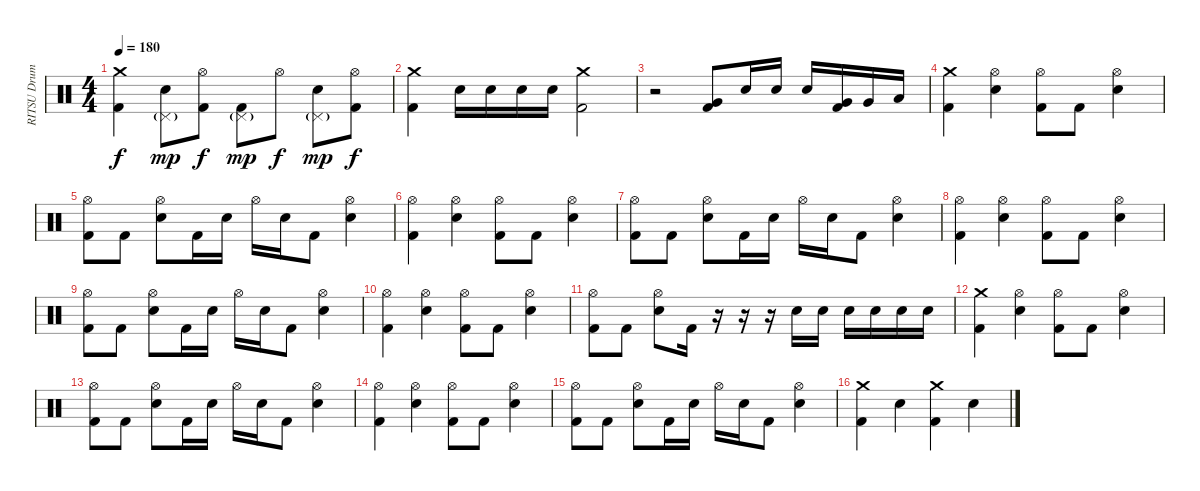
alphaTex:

\track ("RITSU Drums" "RITSU Drum") {instrument percussion}
\staff {score}
\articulation defaults
\ts (4 4)
\tempo 180
\clef neutral
\ks c
("Crash medium (hit)" "Kick (hit) 2").4{dy f} ("Pedal Hi-Hat (hit)"{g} "Electric Snare (hit)").8{dy mp} ("Hi-Hat (open)" "Kick (hit) 2").8{dy f} ("Pedal Hi-Hat (hit)"{g} "Kick (hit) 2").8{dy mp} "Hi-Hat (open)".8{dy f} ("Pedal Hi-Hat (hit)"{g} "Electric Snare (hit)").8{dy mp} ("Hi-Hat (open)" "Kick (hit) 2").8{dy f} |
("Crash medium (hit)" "Kick (hit) 2").4 "Electric Snare (hit)".16 "Electric Snare (hit)".16 "Electric Snare (hit)".16 "Electric Snare (hit)".16 ("Crash medium (hit)" "Kick (hit) 2").2 |
r.2 ("Very Low Tom (hit)" "Kick (hit) 2").8 "Electric Snare (hit)".16 "Electric Snare (hit)".16 "Electric Snare (hit)".16 ("Very Low Tom (hit)" "Kick (hit) 2").16 "Very Low Tom (hit)".16 "Low Floor Tom (hit)".16 |
("Crash medium (hit)" "Kick (hit) 2").4 ("Hi-Hat (open)" "Electric Snare (hit)").4 ("Hi-Hat (open)" "Kick (hit) 2").8 "Kick (hit) 2".8 ("Hi-Hat (open)" "Electric Snare (hit)").4 |
("Hi-Hat (open)" "Kick (hit) 2").8 "Kick (hit) 2".8 ("Hi-Hat (open)" "Electric Snare (hit)").8 "Kick (hit) 2".16 "Electric Snare (hit)".16 "Hi-Hat (open)".16 "Electric Snare (hit)".16 "Kick (hit) 2".8 ("Hi-Hat (open)" "Electric Snare (hit)").4 |
("Hi-Hat (open)" "Kick (hit) 2").4 ("Hi-Hat (open)" "Electric Snare (hit)").4 ("Hi-Hat (open)" "Kick (hit) 2").8 "Kick (hit) 2".8 ("Hi-Hat (open)" "Electric Snare (hit)").4 |
("Hi-Hat (open)" "Kick (hit) 2").8 "Kick (hit) 2".8 ("Hi-Hat (open)" "Electric Snare (hit)").8 "Kick (hit) 2".16 "Electric Snare (hit)".16 "Hi-Hat (open)".16 "Electric Snare (hit)".16 "Kick (hit) 2".8 ("Hi-Hat (open)" "Electric Snare (hit)").4 |
("Hi-Hat (open)" "Kick (hit) 2").4 ("Hi-Hat (open)" "Electric Snare (hit)").4 ("Hi-Hat (open)" "Kick (hit) 2").8 "Kick (hit) 2".8 ("Hi-Hat (open)" "Electric Snare (hit)").4 |
("Hi-Hat (open)" "Kick (hit) 2").8 "Kick (hit) 2".8 ("Hi-Hat (open)" "Electric Snare (hit)").8 "Kick (hit) 2".16 "Electric Snare (hit)".16 "Hi-Hat (open)".16 "Electric Snare (hit)".16 "Kick (hit) 2".8 ("Hi-Hat (open)" "Electric Snare (hit)").4 |
("Hi-Hat (open)" "Kick (hit) 2").4 ("Hi-Hat (open)" "Electric Snare (hit)").4 ("Hi-Hat (open)" "Kick (hit) 2").8 "Kick (hit) 2".8 ("Hi-Hat (open)" "Electric Snare (hit)").4 |
("Hi-Hat (open)" "Kick (hit) 2").8 "Kick (hit) 2".8 ("Hi-Hat (open)" "Electric Snare (hit)").8 "Kick (hit) 2".16 r.16 r.16 r.16 "Electric Snare (hit)".16 "Electric Snare (hit)".16 "Electric Snare (hit)".16 "Electric Snare (hit)".16 "Electric Snare (hit)".16 "Electric Snare (hit)".16 |
("Crash medium (hit)" "Kick (hit) 2").4 ("Hi-Hat (open)" "Electric Snare (hit)").4 ("Hi-Hat (open)" "Kick (hit) 2").8 "Kick (hit) 2".8 ("Hi-Hat (open)" "Electric Snare (hit)").4 |
("Hi-Hat (open)" "Kick (hit) 2").8 "Kick (hit) 2".8 ("Hi-Hat (open)" "Electric Snare (hit)").8 "Kick (hit) 2".16 "Electric Snare (hit)".16 "Hi-Hat (open)".16 "Electric Snare (hit)".16 "Kick (hit) 2".8 ("Hi-Hat (open)" "Electric Snare (hit)").4 |
("Hi-Hat (open)" "Kick (hit) 2").4 ("Hi-Hat (open)" "Electric Snare (hit)").4 ("Hi-Hat (open)" "Kick (hit) 2").8 "Kick (hit) 2".8 ("Hi-Hat (open)" "Electric Snare (hit)").4 |
("Hi-Hat (open)" "Kick (hit) 2").8 "Kick (hit) 2".8 ("Hi-Hat (open)" "Electric Snare (hit)").8 "Kick (hit) 2".16 "Electric Snare (hit)".16 "Hi-Hat (open)".16 "Electric Snare (hit)".16 "Kick (hit) 2".8 ("Hi-Hat (open)" "Electric Snare (hit)").4 |
("Crash medium (hit)" "Kick (hit) 2").4 "Electric Snare (hit)".4 ("Crash medium (hit)" "Kick (hit) 2").4 "Electric Snare (hit)".4
